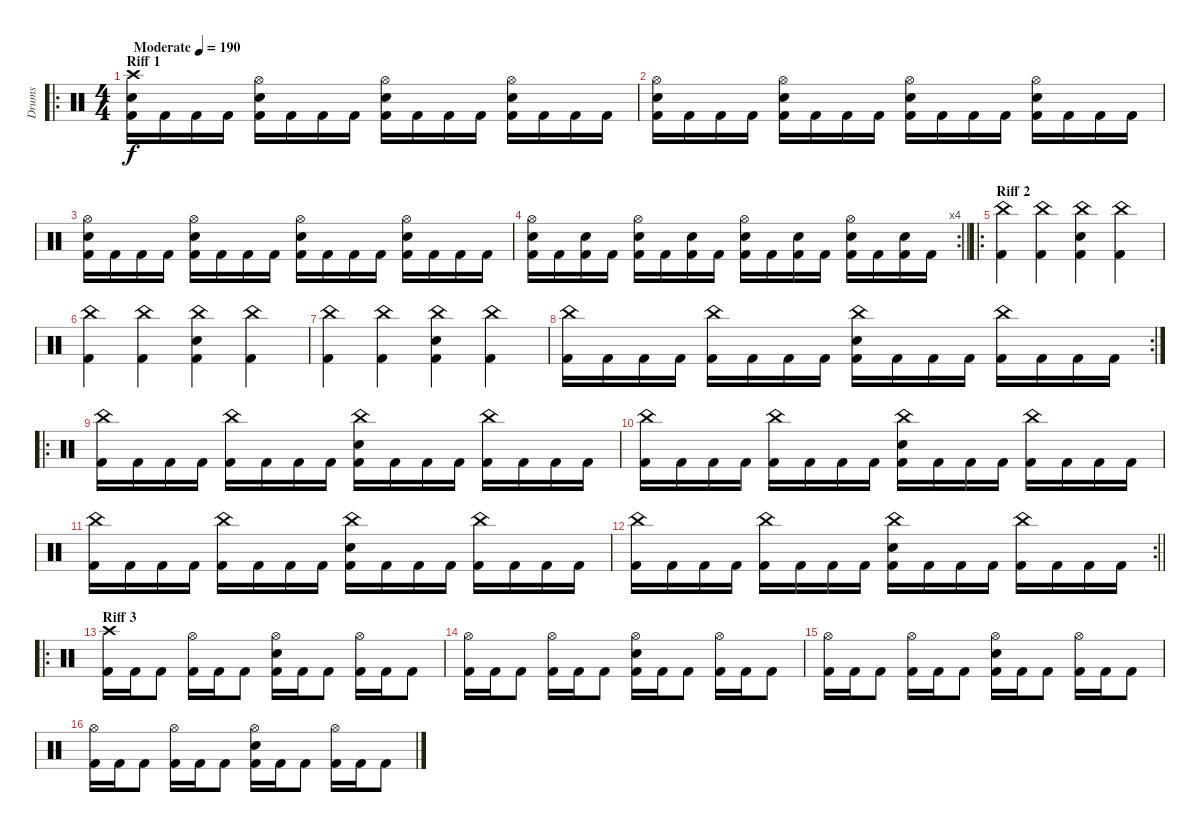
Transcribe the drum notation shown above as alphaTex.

\track ("Drums" "Drums") {instrument percussion}
\staff {score}
\articulation defaults
\ro
\ts (4 4)
\section ("" "Riff 1")
\tempo (190 "Moderate")
\clef neutral
\ks c
("Crash high (hit)" "Electric Snare (hit)" "Kick (hit) 2").16{dy f} "Kick (hit) 2".16 "Kick (hit) 2".16 "Kick (hit) 2".16 ("Hi-Hat (open)" "Electric Snare (hit)" "Kick (hit) 2").16 "Kick (hit) 2".16 "Kick (hit) 2".16 "Kick (hit) 2".16 ("Hi-Hat (open)" "Electric Snare (hit)" "Kick (hit) 2").16 "Kick (hit) 2".16 "Kick (hit) 2".16 "Kick (hit) 2".16 ("Hi-Hat (open)" "Electric Snare (hit)" "Kick (hit) 2").16 "Kick (hit) 2".16 "Kick (hit) 2".16 "Kick (hit) 2".16 |
("Hi-Hat (open)" "Electric Snare (hit)" "Kick (hit) 2").16 "Kick (hit) 2".16 "Kick (hit) 2".16 "Kick (hit) 2".16 ("Hi-Hat (open)" "Electric Snare (hit)" "Kick (hit) 2").16 "Kick (hit) 2".16 "Kick (hit) 2".16 "Kick (hit) 2".16 ("Hi-Hat (open)" "Electric Snare (hit)" "Kick (hit) 2").16 "Kick (hit) 2".16 "Kick (hit) 2".16 "Kick (hit) 2".16 ("Hi-Hat (open)" "Electric Snare (hit)" "Kick (hit) 2").16 "Kick (hit) 2".16 "Kick (hit) 2".16 "Kick (hit) 2".16 |
("Hi-Hat (open)" "Electric Snare (hit)" "Kick (hit) 2").16 "Kick (hit) 2".16 "Kick (hit) 2".16 "Kick (hit) 2".16 ("Hi-Hat (open)" "Electric Snare (hit)" "Kick (hit) 2").16 "Kick (hit) 2".16 "Kick (hit) 2".16 "Kick (hit) 2".16 ("Hi-Hat (open)" "Electric Snare (hit)" "Kick (hit) 2").16 "Kick (hit) 2".16 "Kick (hit) 2".16 "Kick (hit) 2".16 ("Hi-Hat (open)" "Electric Snare (hit)" "Kick (hit) 2").16 "Kick (hit) 2".16 "Kick (hit) 2".16 "Kick (hit) 2".16 |
\rc 4
\barLineRight lightlight
("Hi-Hat (open)" "Electric Snare (hit)" "Kick (hit) 2").16 "Kick (hit) 2".16 ("Electric Snare (hit)" "Kick (hit) 2").16 "Kick (hit) 2".16 ("Hi-Hat (open)" "Electric Snare (hit)" "Kick (hit) 2").16 "Kick (hit) 2".16 ("Electric Snare (hit)" "Kick (hit) 2").16 "Kick (hit) 2".16 ("Hi-Hat (open)" "Electric Snare (hit)" "Kick (hit) 2").16 "Kick (hit) 2".16 ("Electric Snare (hit)" "Kick (hit) 2").16 "Kick (hit) 2".16 ("Hi-Hat (open)" "Electric Snare (hit)" "Kick (hit) 2").16 "Kick (hit) 2".16 ("Electric Snare (hit)" "Kick (hit) 2").16 "Kick (hit) 2".16 |
\ro
\section ("" "Riff 2")
("China (hit)" "Kick (hit) 2").4 ("China (hit)" "Kick (hit) 2").4 ("China (hit)" "Electric Snare (hit)" "Kick (hit) 2").4 ("China (hit)" "Kick (hit) 2").4 |
("China (hit)" "Kick (hit) 2").4 ("China (hit)" "Kick (hit) 2").4 ("China (hit)" "Electric Snare (hit)" "Kick (hit) 2").4 ("China (hit)" "Kick (hit) 2").4 |
("China (hit)" "Kick (hit) 2").4 ("China (hit)" "Kick (hit) 2").4 ("China (hit)" "Electric Snare (hit)" "Kick (hit) 2").4 ("China (hit)" "Kick (hit) 2").4 |
\rc 2
("China (hit)" "Kick (hit) 2").16 "Kick (hit) 2".16 "Kick (hit) 2".16 "Kick (hit) 2".16 ("China (hit)" "Kick (hit) 2").16 "Kick (hit) 2".16 "Kick (hit) 2".16 "Kick (hit) 2".16 ("China (hit)" "Electric Snare (hit)" "Kick (hit) 2").16 "Kick (hit) 2".16 "Kick (hit) 2".16 "Kick (hit) 2".16 ("China (hit)" "Kick (hit) 2").16 "Kick (hit) 2".16 "Kick (hit) 2".16 "Kick (hit) 2".16 |
\ro
("China (hit)" "Kick (hit) 2").16 "Kick (hit) 2".16 "Kick (hit) 2".16 "Kick (hit) 2".16 ("China (hit)" "Kick (hit) 2").16 "Kick (hit) 2".16 "Kick (hit) 2".16 "Kick (hit) 2".16 ("China (hit)" "Electric Snare (hit)" "Kick (hit) 2").16 "Kick (hit) 2".16 "Kick (hit) 2".16 "Kick (hit) 2".16 ("China (hit)" "Kick (hit) 2").16 "Kick (hit) 2".16 "Kick (hit) 2".16 "Kick (hit) 2".16 |
("China (hit)" "Kick (hit) 2").16 "Kick (hit) 2".16 "Kick (hit) 2".16 "Kick (hit) 2".16 ("China (hit)" "Kick (hit) 2").16 "Kick (hit) 2".16 "Kick (hit) 2".16 "Kick (hit) 2".16 ("China (hit)" "Electric Snare (hit)" "Kick (hit) 2").16 "Kick (hit) 2".16 "Kick (hit) 2".16 "Kick (hit) 2".16 ("China (hit)" "Kick (hit) 2").16 "Kick (hit) 2".16 "Kick (hit) 2".16 "Kick (hit) 2".16 |
("China (hit)" "Kick (hit) 2").16 "Kick (hit) 2".16 "Kick (hit) 2".16 "Kick (hit) 2".16 ("China (hit)" "Kick (hit) 2").16 "Kick (hit) 2".16 "Kick (hit) 2".16 "Kick (hit) 2".16 ("China (hit)" "Electric Snare (hit)" "Kick (hit) 2").16 "Kick (hit) 2".16 "Kick (hit) 2".16 "Kick (hit) 2".16 ("China (hit)" "Kick (hit) 2").16 "Kick (hit) 2".16 "Kick (hit) 2".16 "Kick (hit) 2".16 |
\rc 2
\barLineRight lightlight
("China (hit)" "Kick (hit) 2").16 "Kick (hit) 2".16 "Kick (hit) 2".16 "Kick (hit) 2".16 ("China (hit)" "Kick (hit) 2").16 "Kick (hit) 2".16 "Kick (hit) 2".16 "Kick (hit) 2".16 ("China (hit)" "Electric Snare (hit)" "Kick (hit) 2").16 "Kick (hit) 2".16 "Kick (hit) 2".16 "Kick (hit) 2".16 ("China (hit)" "Kick (hit) 2").16 "Kick (hit) 2".16 "Kick (hit) 2".16 "Kick (hit) 2".16 |
\ro
\section ("" "Riff 3")
("Crash high (hit)" "Kick (hit) 2").16 "Kick (hit) 2".16 "Kick (hit) 2".8 ("Hi-Hat (open)" "Kick (hit) 2").16 "Kick (hit) 2".16 "Kick (hit) 2".8 ("Hi-Hat (open)" "Electric Snare (hit)" "Kick (hit) 2").16 "Kick (hit) 2".16 "Kick (hit) 2".8 ("Hi-Hat (open)" "Kick (hit) 2").16 "Kick (hit) 2".16 "Kick (hit) 2".8 |
("Hi-Hat (open)" "Kick (hit) 2").16 "Kick (hit) 2".16 "Kick (hit) 2".8 ("Hi-Hat (open)" "Kick (hit) 2").16 "Kick (hit) 2".16 "Kick (hit) 2".8 ("Hi-Hat (open)" "Electric Snare (hit)" "Kick (hit) 2").16 "Kick (hit) 2".16 "Kick (hit) 2".8 ("Hi-Hat (open)" "Kick (hit) 2").16 "Kick (hit) 2".16 "Kick (hit) 2".8 |
("Hi-Hat (open)" "Kick (hit) 2").16 "Kick (hit) 2".16 "Kick (hit) 2".8 ("Hi-Hat (open)" "Kick (hit) 2").16 "Kick (hit) 2".16 "Kick (hit) 2".8 ("Hi-Hat (open)" "Electric Snare (hit)" "Kick (hit) 2").16 "Kick (hit) 2".16 "Kick (hit) 2".8 ("Hi-Hat (open)" "Kick (hit) 2").16 "Kick (hit) 2".16 "Kick (hit) 2".8 |
("Hi-Hat (open)" "Kick (hit) 2").16 "Kick (hit) 2".16 "Kick (hit) 2".8 ("Hi-Hat (open)" "Kick (hit) 2").16 "Kick (hit) 2".16 "Kick (hit) 2".8 ("Hi-Hat (open)" "Electric Snare (hit)" "Kick (hit) 2").16 "Kick (hit) 2".16 "Kick (hit) 2".8 ("Hi-Hat (open)" "Kick (hit) 2").16 "Kick (hit) 2".16 "Kick (hit) 2".8
